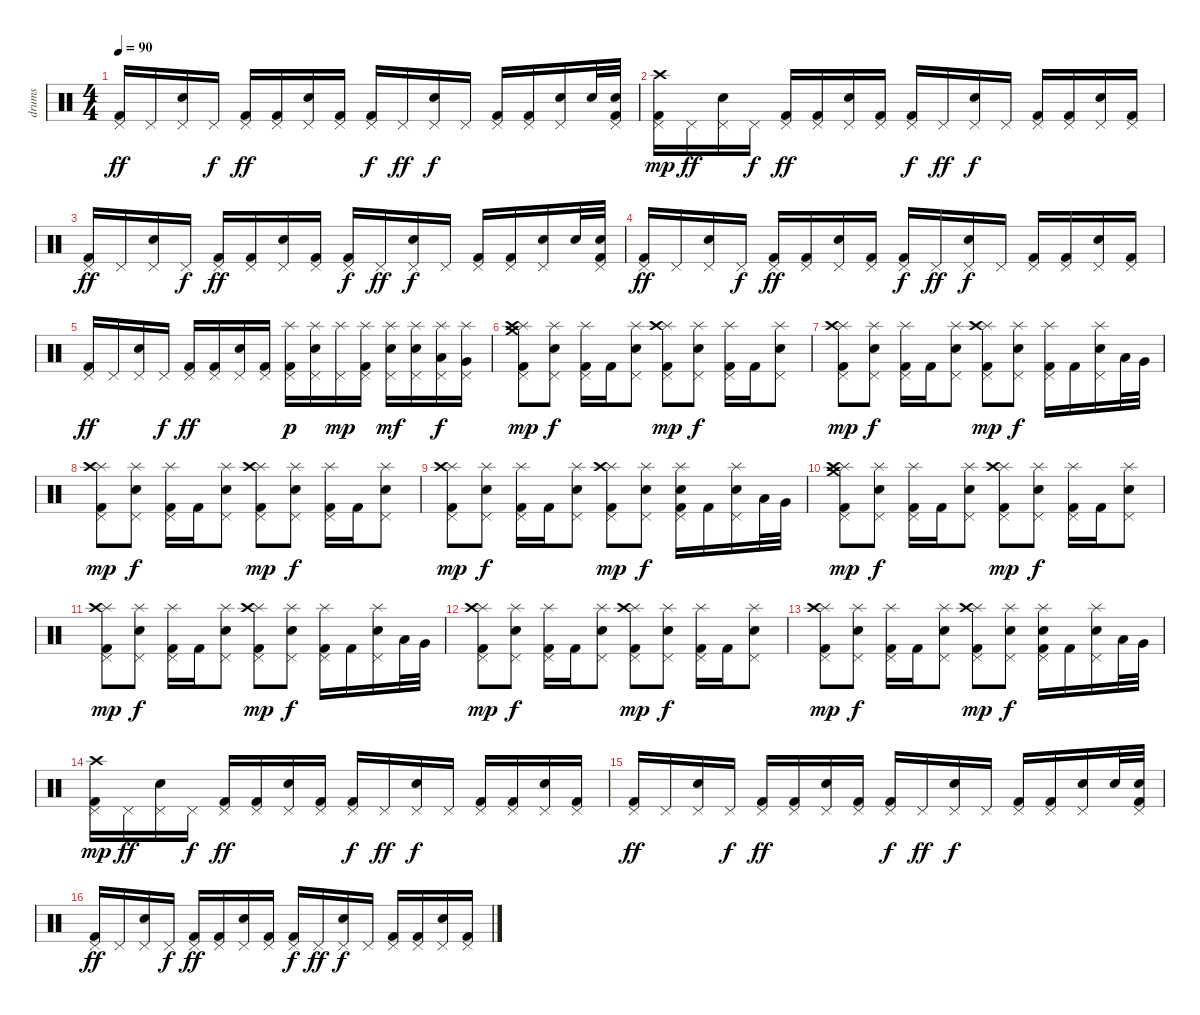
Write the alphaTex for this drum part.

\track ("drums" "drums") {instrument percussion}
\staff {score}
\articulation defaults
\ts (4 4)
\tempo 90
\clef neutral
\ks c
("Pedal Hi-Hat (hit)" "Kick (hit) 2").16{dy ff} "Pedal Hi-Hat (hit)".16 ("Pedal Hi-Hat (hit)" "Electric Snare (hit)").16 "Pedal Hi-Hat (hit)".16{dy f} ("Pedal Hi-Hat (hit)" "Kick (hit) 2").16{dy ff} ("Pedal Hi-Hat (hit)" "Kick (hit) 2").16 ("Pedal Hi-Hat (hit)" "Electric Snare (hit)").16 ("Pedal Hi-Hat (hit)" "Kick (hit) 2").16 ("Pedal Hi-Hat (hit)" "Kick (hit) 2").16{dy f} "Pedal Hi-Hat (hit)".16{dy ff} ("Pedal Hi-Hat (hit)" "Electric Snare (hit)").16{dy f} "Pedal Hi-Hat (hit)".16 ("Pedal Hi-Hat (hit)" "Kick (hit) 2").16 ("Pedal Hi-Hat (hit)" "Kick (hit) 2").16 ("Pedal Hi-Hat (hit)" "Electric Snare (hit)").16 "Electric Snare (hit)".32 ("Pedal Hi-Hat (hit)" "Electric Snare (hit)" "Kick (hit) 2").32 |
("Pedal Hi-Hat (hit)" "Crash high (hit)" "Kick (hit) 2").16{dy mp} "Pedal Hi-Hat (hit)".16{dy ff} ("Pedal Hi-Hat (hit)" "Electric Snare (hit)").16 "Pedal Hi-Hat (hit)".16{dy f} ("Pedal Hi-Hat (hit)" "Kick (hit) 2").16{dy ff} ("Pedal Hi-Hat (hit)" "Kick (hit) 2").16 ("Pedal Hi-Hat (hit)" "Electric Snare (hit)").16 ("Pedal Hi-Hat (hit)" "Kick (hit) 2").16 ("Pedal Hi-Hat (hit)" "Kick (hit) 2").16{dy f} "Pedal Hi-Hat (hit)".16{dy ff} ("Pedal Hi-Hat (hit)" "Electric Snare (hit)").16{dy f} "Pedal Hi-Hat (hit)".16 ("Pedal Hi-Hat (hit)" "Kick (hit) 2").16 ("Pedal Hi-Hat (hit)" "Kick (hit) 2").16 ("Pedal Hi-Hat (hit)" "Electric Snare (hit)").16 ("Pedal Hi-Hat (hit)" "Kick (hit) 2").16 |
("Pedal Hi-Hat (hit)" "Kick (hit) 2").16{dy ff} "Pedal Hi-Hat (hit)".16 ("Pedal Hi-Hat (hit)" "Electric Snare (hit)").16 "Pedal Hi-Hat (hit)".16{dy f} ("Pedal Hi-Hat (hit)" "Kick (hit) 2").16{dy ff} ("Pedal Hi-Hat (hit)" "Kick (hit) 2").16 ("Pedal Hi-Hat (hit)" "Electric Snare (hit)").16 ("Pedal Hi-Hat (hit)" "Kick (hit) 2").16 ("Pedal Hi-Hat (hit)" "Kick (hit) 2").16{dy f} "Pedal Hi-Hat (hit)".16{dy ff} ("Pedal Hi-Hat (hit)" "Electric Snare (hit)").16{dy f} "Pedal Hi-Hat (hit)".16 ("Pedal Hi-Hat (hit)" "Kick (hit) 2").16 ("Pedal Hi-Hat (hit)" "Kick (hit) 2").16 ("Pedal Hi-Hat (hit)" "Electric Snare (hit)").16 "Electric Snare (hit)".32 ("Pedal Hi-Hat (hit)" "Electric Snare (hit)" "Kick (hit) 2").32 |
("Pedal Hi-Hat (hit)" "Kick (hit) 2").16{dy ff} "Pedal Hi-Hat (hit)".16 ("Pedal Hi-Hat (hit)" "Electric Snare (hit)").16 "Pedal Hi-Hat (hit)".16{dy f} ("Pedal Hi-Hat (hit)" "Kick (hit) 2").16{dy ff} ("Pedal Hi-Hat (hit)" "Kick (hit) 2").16 ("Pedal Hi-Hat (hit)" "Electric Snare (hit)").16 ("Pedal Hi-Hat (hit)" "Kick (hit) 2").16 ("Pedal Hi-Hat (hit)" "Kick (hit) 2").16{dy f} "Pedal Hi-Hat (hit)".16{dy ff} ("Pedal Hi-Hat (hit)" "Electric Snare (hit)").16{dy f} "Pedal Hi-Hat (hit)".16 ("Pedal Hi-Hat (hit)" "Kick (hit) 2").16 ("Pedal Hi-Hat (hit)" "Kick (hit) 2").16 ("Pedal Hi-Hat (hit)" "Electric Snare (hit)").16 ("Pedal Hi-Hat (hit)" "Kick (hit) 2").16 |
("Pedal Hi-Hat (hit)" "Kick (hit) 2").16{dy ff} "Pedal Hi-Hat (hit)".16 ("Pedal Hi-Hat (hit)" "Electric Snare (hit)").16 "Pedal Hi-Hat (hit)".16{dy f} ("Pedal Hi-Hat (hit)" "Kick (hit) 2").16{dy ff} ("Pedal Hi-Hat (hit)" "Kick (hit) 2").16 ("Pedal Hi-Hat (hit)" "Electric Snare (hit)").16 ("Pedal Hi-Hat (hit)" "Kick (hit) 2").16 ("Pedal Hi-Hat (hit)" "Splash (hit)" "Kick (hit) 2").16{dy p} ("Pedal Hi-Hat (hit)" "Splash (hit)" "Electric Snare (hit)").16 ("Pedal Hi-Hat (hit)" "Splash (hit)").16{dy mp} ("Pedal Hi-Hat (hit)" "Splash (hit)" "Kick (hit) 2").16 ("Pedal Hi-Hat (hit)" "Splash (hit)" "Electric Snare (hit)").16{dy mf} ("Pedal Hi-Hat (hit)" "Splash (hit)" "Electric Snare (hit)").16 ("Pedal Hi-Hat (hit)" "Splash (hit)" "Low Tom (hit)").16{dy f} ("Pedal Hi-Hat (hit)" "Splash (hit)" "Very Low Tom (hit)").16 |
("Splash (hit)" "Pedal Hi-Hat (hit)" "Crash high (hit)" "Crash medium (hit)" "Kick (hit) 2").8{dy mp} ("Splash (hit)" "Pedal Hi-Hat (hit)" "Electric Snare (hit)").8{dy f} ("Splash (hit)" "Pedal Hi-Hat (hit)" "Kick (hit) 2").16 "Kick (hit) 2".16 ("Splash (hit)" "Pedal Hi-Hat (hit)" "Electric Snare (hit)").8 ("Splash (hit)" "Pedal Hi-Hat (hit)" "Crash high (hit)" "Kick (hit) 2").8{dy mp} ("Splash (hit)" "Pedal Hi-Hat (hit)" "Electric Snare (hit)").8{dy f} ("Splash (hit)" "Pedal Hi-Hat (hit)" "Kick (hit) 2").16 "Kick (hit) 2".16 ("Splash (hit)" "Pedal Hi-Hat (hit)" "Electric Snare (hit)").8 |
("Splash (hit)" "Pedal Hi-Hat (hit)" "Crash high (hit)" "Kick (hit) 2").8{dy mp} ("Splash (hit)" "Pedal Hi-Hat (hit)" "Electric Snare (hit)").8{dy f} ("Splash (hit)" "Pedal Hi-Hat (hit)" "Kick (hit) 2").16 "Kick (hit) 2".16 ("Splash (hit)" "Pedal Hi-Hat (hit)" "Electric Snare (hit)").8 ("Splash (hit)" "Pedal Hi-Hat (hit)" "Crash high (hit)" "Kick (hit) 2").8{dy mp} ("Splash (hit)" "Pedal Hi-Hat (hit)" "Electric Snare (hit)").8{dy f} ("Splash (hit)" "Pedal Hi-Hat (hit)" "Kick (hit) 2").16 "Kick (hit) 2".16 ("Splash (hit)" "Pedal Hi-Hat (hit)" "Electric Snare (hit)").16 "Low Tom (hit)".32 "Very Low Tom (hit)".32 |
("Splash (hit)" "Pedal Hi-Hat (hit)" "Crash high (hit)" "Kick (hit) 2").8{dy mp} ("Splash (hit)" "Pedal Hi-Hat (hit)" "Electric Snare (hit)").8{dy f} ("Splash (hit)" "Pedal Hi-Hat (hit)" "Kick (hit) 2").16 "Kick (hit) 2".16 ("Splash (hit)" "Pedal Hi-Hat (hit)" "Electric Snare (hit)").8 ("Splash (hit)" "Pedal Hi-Hat (hit)" "Crash high (hit)" "Kick (hit) 2").8{dy mp} ("Splash (hit)" "Pedal Hi-Hat (hit)" "Electric Snare (hit)").8{dy f} ("Splash (hit)" "Pedal Hi-Hat (hit)" "Kick (hit) 2").16 "Kick (hit) 2".16 ("Splash (hit)" "Pedal Hi-Hat (hit)" "Electric Snare (hit)").8 |
("Splash (hit)" "Pedal Hi-Hat (hit)" "Crash high (hit)" "Kick (hit) 2").8{dy mp} ("Splash (hit)" "Pedal Hi-Hat (hit)" "Electric Snare (hit)").8{dy f} ("Splash (hit)" "Pedal Hi-Hat (hit)" "Kick (hit) 2").16 "Kick (hit) 2".16 ("Splash (hit)" "Pedal Hi-Hat (hit)" "Electric Snare (hit)").8 ("Splash (hit)" "Pedal Hi-Hat (hit)" "Crash high (hit)" "Kick (hit) 2").8{dy mp} ("Splash (hit)" "Pedal Hi-Hat (hit)" "Electric Snare (hit)").8{dy f} ("Splash (hit)" "Pedal Hi-Hat (hit)" "Electric Snare (hit)" "Kick (hit) 2").16 "Kick (hit) 2".16 ("Splash (hit)" "Pedal Hi-Hat (hit)" "Electric Snare (hit)").16 "Low Tom (hit)".32 "Very Low Tom (hit)".32 |
("Splash (hit)" "Pedal Hi-Hat (hit)" "Crash high (hit)" "Crash medium (hit)" "Kick (hit) 2").8{dy mp} ("Splash (hit)" "Pedal Hi-Hat (hit)" "Electric Snare (hit)").8{dy f} ("Splash (hit)" "Pedal Hi-Hat (hit)" "Kick (hit) 2").16 "Kick (hit) 2".16 ("Splash (hit)" "Pedal Hi-Hat (hit)" "Electric Snare (hit)").8 ("Splash (hit)" "Pedal Hi-Hat (hit)" "Crash high (hit)" "Kick (hit) 2").8{dy mp} ("Splash (hit)" "Pedal Hi-Hat (hit)" "Electric Snare (hit)").8{dy f} ("Splash (hit)" "Pedal Hi-Hat (hit)" "Kick (hit) 2").16 "Kick (hit) 2".16 ("Splash (hit)" "Pedal Hi-Hat (hit)" "Electric Snare (hit)").8 |
("Splash (hit)" "Pedal Hi-Hat (hit)" "Crash high (hit)" "Kick (hit) 2").8{dy mp} ("Splash (hit)" "Pedal Hi-Hat (hit)" "Electric Snare (hit)").8{dy f} ("Splash (hit)" "Pedal Hi-Hat (hit)" "Kick (hit) 2").16 "Kick (hit) 2".16 ("Splash (hit)" "Pedal Hi-Hat (hit)" "Electric Snare (hit)").8 ("Splash (hit)" "Pedal Hi-Hat (hit)" "Crash high (hit)" "Kick (hit) 2").8{dy mp} ("Splash (hit)" "Pedal Hi-Hat (hit)" "Electric Snare (hit)").8{dy f} ("Splash (hit)" "Pedal Hi-Hat (hit)" "Kick (hit) 2").16 "Kick (hit) 2".16 ("Splash (hit)" "Pedal Hi-Hat (hit)" "Electric Snare (hit)").16 "Low Tom (hit)".32 "Very Low Tom (hit)".32 |
("Splash (hit)" "Pedal Hi-Hat (hit)" "Crash high (hit)" "Kick (hit) 2").8{dy mp} ("Splash (hit)" "Pedal Hi-Hat (hit)" "Electric Snare (hit)").8{dy f} ("Splash (hit)" "Pedal Hi-Hat (hit)" "Kick (hit) 2").16 "Kick (hit) 2".16 ("Splash (hit)" "Pedal Hi-Hat (hit)" "Electric Snare (hit)").8 ("Splash (hit)" "Pedal Hi-Hat (hit)" "Crash high (hit)" "Kick (hit) 2").8{dy mp} ("Splash (hit)" "Pedal Hi-Hat (hit)" "Electric Snare (hit)").8{dy f} ("Splash (hit)" "Pedal Hi-Hat (hit)" "Kick (hit) 2").16 "Kick (hit) 2".16 ("Splash (hit)" "Pedal Hi-Hat (hit)" "Electric Snare (hit)").8 |
("Splash (hit)" "Pedal Hi-Hat (hit)" "Crash high (hit)" "Kick (hit) 2").8{dy mp} ("Splash (hit)" "Pedal Hi-Hat (hit)" "Electric Snare (hit)").8{dy f} ("Splash (hit)" "Pedal Hi-Hat (hit)" "Kick (hit) 2").16 "Kick (hit) 2".16 ("Splash (hit)" "Pedal Hi-Hat (hit)" "Electric Snare (hit)").8 ("Splash (hit)" "Pedal Hi-Hat (hit)" "Crash high (hit)" "Kick (hit) 2").8{dy mp} ("Splash (hit)" "Pedal Hi-Hat (hit)" "Electric Snare (hit)").8{dy f} ("Splash (hit)" "Pedal Hi-Hat (hit)" "Electric Snare (hit)" "Kick (hit) 2").16 "Kick (hit) 2".16 ("Splash (hit)" "Pedal Hi-Hat (hit)" "Electric Snare (hit)").16 "Low Tom (hit)".32 "Very Low Tom (hit)".32 |
("Pedal Hi-Hat (hit)" "Crash high (hit)" "Kick (hit) 2").16{dy mp} "Pedal Hi-Hat (hit)".16{dy ff} ("Pedal Hi-Hat (hit)" "Electric Snare (hit)").16 "Pedal Hi-Hat (hit)".16{dy f} ("Pedal Hi-Hat (hit)" "Kick (hit) 2").16{dy ff} ("Pedal Hi-Hat (hit)" "Kick (hit) 2").16 ("Pedal Hi-Hat (hit)" "Electric Snare (hit)").16 ("Pedal Hi-Hat (hit)" "Kick (hit) 2").16 ("Pedal Hi-Hat (hit)" "Kick (hit) 2").16{dy f} "Pedal Hi-Hat (hit)".16{dy ff} ("Pedal Hi-Hat (hit)" "Electric Snare (hit)").16{dy f} "Pedal Hi-Hat (hit)".16 ("Pedal Hi-Hat (hit)" "Kick (hit) 2").16 ("Pedal Hi-Hat (hit)" "Kick (hit) 2").16 ("Pedal Hi-Hat (hit)" "Electric Snare (hit)").16 ("Pedal Hi-Hat (hit)" "Kick (hit) 2").16 |
("Pedal Hi-Hat (hit)" "Kick (hit) 2").16{dy ff} "Pedal Hi-Hat (hit)".16 ("Pedal Hi-Hat (hit)" "Electric Snare (hit)").16 "Pedal Hi-Hat (hit)".16{dy f} ("Pedal Hi-Hat (hit)" "Kick (hit) 2").16{dy ff} ("Pedal Hi-Hat (hit)" "Kick (hit) 2").16 ("Pedal Hi-Hat (hit)" "Electric Snare (hit)").16 ("Pedal Hi-Hat (hit)" "Kick (hit) 2").16 ("Pedal Hi-Hat (hit)" "Kick (hit) 2").16{dy f} "Pedal Hi-Hat (hit)".16{dy ff} ("Pedal Hi-Hat (hit)" "Electric Snare (hit)").16{dy f} "Pedal Hi-Hat (hit)".16 ("Pedal Hi-Hat (hit)" "Kick (hit) 2").16 ("Pedal Hi-Hat (hit)" "Kick (hit) 2").16 ("Pedal Hi-Hat (hit)" "Electric Snare (hit)").16 "Electric Snare (hit)".32 ("Pedal Hi-Hat (hit)" "Electric Snare (hit)" "Kick (hit) 2").32 |
("Pedal Hi-Hat (hit)" "Kick (hit) 2").16{dy ff} "Pedal Hi-Hat (hit)".16 ("Pedal Hi-Hat (hit)" "Electric Snare (hit)").16 "Pedal Hi-Hat (hit)".16{dy f} ("Pedal Hi-Hat (hit)" "Kick (hit) 2").16{dy ff} ("Pedal Hi-Hat (hit)" "Kick (hit) 2").16 ("Pedal Hi-Hat (hit)" "Electric Snare (hit)").16 ("Pedal Hi-Hat (hit)" "Kick (hit) 2").16 ("Pedal Hi-Hat (hit)" "Kick (hit) 2").16{dy f} "Pedal Hi-Hat (hit)".16{dy ff} ("Pedal Hi-Hat (hit)" "Electric Snare (hit)").16{dy f} "Pedal Hi-Hat (hit)".16 ("Pedal Hi-Hat (hit)" "Kick (hit) 2").16 ("Pedal Hi-Hat (hit)" "Kick (hit) 2").16 ("Pedal Hi-Hat (hit)" "Electric Snare (hit)").16 ("Pedal Hi-Hat (hit)" "Kick (hit) 2").16
